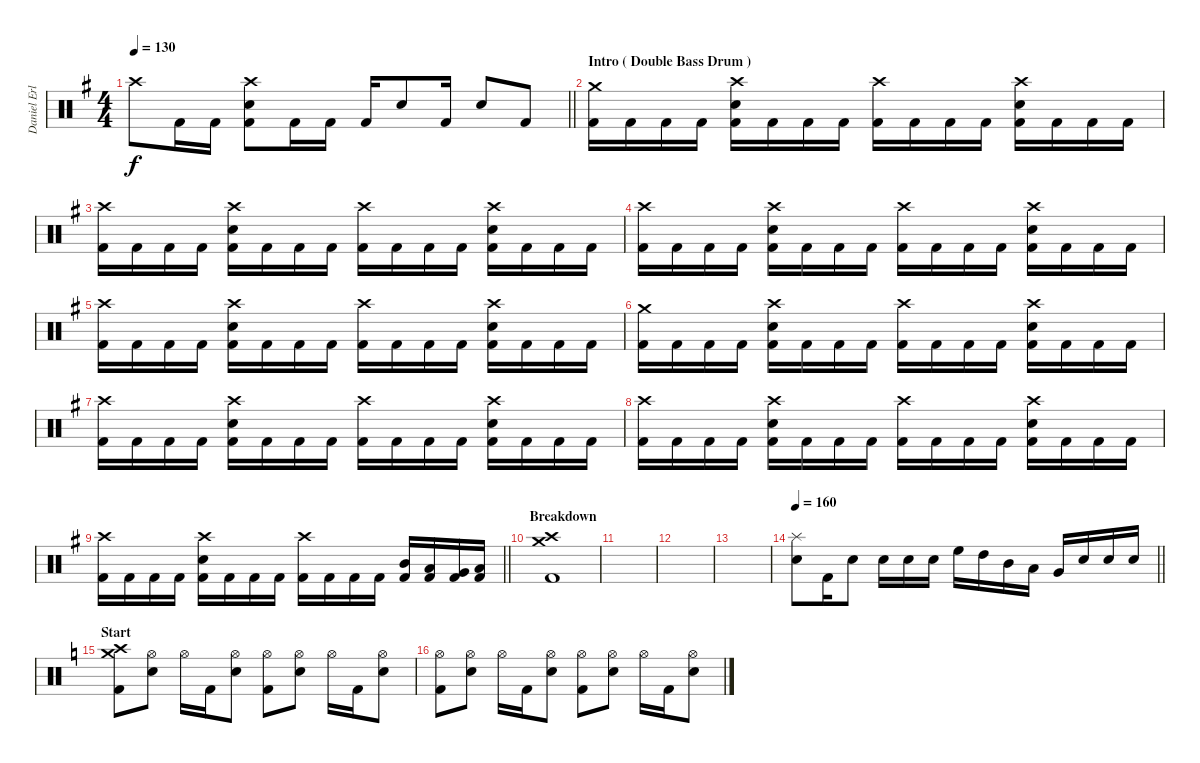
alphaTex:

\track ("Daniel Erlandsson" "Daniel Erl") {instrument percussion}
\staff {score}
\articulation defaults
\ts (4 4)
\tempo 130
\clef neutral
\barLineRight lightlight
\ks g "Crash high (hit)".8{dy f} "Kick (hit) 2".16 "Kick (hit) 2".16
("Crash high (hit)" "Kick (hit) 2" "Electric Snare (hit)").8 "Kick (hit) 2".16 "Kick (hit) 2".16 "Kick (hit) 2".16 "Electric Snare (hit)".8 "Kick (hit) 2".16 "Electric Snare (hit)".8 "Kick (hit) 2".8 |
\section ("" "Intro ( Double Bass Drum )")
("Crash medium (hit)" "Kick (hit) 2").16 "Kick (hit) 2".16 "Kick (hit) 2".16 "Kick (hit) 2".16 ("Crash high (hit)" "Electric Snare (hit)" "Kick (hit) 2").16 "Kick (hit) 2".16 "Kick (hit) 2".16 "Kick (hit) 2".16 ("Crash high (hit)" "Kick (hit) 2").16 "Kick (hit) 2".16 "Kick (hit) 2".16 "Kick (hit) 2".16 ("Crash high (hit)" "Electric Snare (hit)" "Kick (hit) 2").16 "Kick (hit) 2".16 "Kick (hit) 2".16 "Kick (hit) 2".16 |
("Crash high (hit)" "Kick (hit) 2").16 "Kick (hit) 2".16 "Kick (hit) 2".16 "Kick (hit) 2".16 ("Crash high (hit)" "Electric Snare (hit)" "Kick (hit) 2").16 "Kick (hit) 2".16 "Kick (hit) 2".16 "Kick (hit) 2".16 ("Crash high (hit)" "Kick (hit) 2").16 "Kick (hit) 2".16 "Kick (hit) 2".16 "Kick (hit) 2".16 ("Crash high (hit)" "Electric Snare (hit)" "Kick (hit) 2").16 "Kick (hit) 2".16 "Kick (hit) 2".16 "Kick (hit) 2".16 |
("Crash high (hit)" "Kick (hit) 2").16 "Kick (hit) 2".16 "Kick (hit) 2".16 "Kick (hit) 2".16 ("Crash high (hit)" "Electric Snare (hit)" "Kick (hit) 2").16 "Kick (hit) 2".16 "Kick (hit) 2".16 "Kick (hit) 2".16 ("Crash high (hit)" "Kick (hit) 2").16 "Kick (hit) 2".16 "Kick (hit) 2".16 "Kick (hit) 2".16 ("Crash high (hit)" "Electric Snare (hit)" "Kick (hit) 2").16 "Kick (hit) 2".16 "Kick (hit) 2".16 "Kick (hit) 2".16 |
("Crash high (hit)" "Kick (hit) 2").16 "Kick (hit) 2".16 "Kick (hit) 2".16 "Kick (hit) 2".16 ("Crash high (hit)" "Electric Snare (hit)" "Kick (hit) 2").16 "Kick (hit) 2".16 "Kick (hit) 2".16 "Kick (hit) 2".16 ("Crash high (hit)" "Kick (hit) 2").16 "Kick (hit) 2".16 "Kick (hit) 2".16 "Kick (hit) 2".16 ("Crash high (hit)" "Electric Snare (hit)" "Kick (hit) 2").16 "Kick (hit) 2".16 "Kick (hit) 2".16 "Kick (hit) 2".16 |
("Crash medium (hit)" "Kick (hit) 2").16 "Kick (hit) 2".16 "Kick (hit) 2".16 "Kick (hit) 2".16 ("Crash high (hit)" "Electric Snare (hit)" "Kick (hit) 2").16 "Kick (hit) 2".16 "Kick (hit) 2".16 "Kick (hit) 2".16 ("Crash high (hit)" "Kick (hit) 2").16 "Kick (hit) 2".16 "Kick (hit) 2".16 "Kick (hit) 2".16 ("Crash high (hit)" "Electric Snare (hit)" "Kick (hit) 2").16 "Kick (hit) 2".16 "Kick (hit) 2".16 "Kick (hit) 2".16 |
("Crash high (hit)" "Kick (hit) 2").16 "Kick (hit) 2".16 "Kick (hit) 2".16 "Kick (hit) 2".16 ("Crash high (hit)" "Electric Snare (hit)" "Kick (hit) 2").16 "Kick (hit) 2".16 "Kick (hit) 2".16 "Kick (hit) 2".16 ("Crash high (hit)" "Kick (hit) 2").16 "Kick (hit) 2".16 "Kick (hit) 2".16 "Kick (hit) 2".16 ("Crash high (hit)" "Electric Snare (hit)" "Kick (hit) 2").16 "Kick (hit) 2".16 "Kick (hit) 2".16 "Kick (hit) 2".16 |
("Crash high (hit)" "Kick (hit) 2").16 "Kick (hit) 2".16 "Kick (hit) 2".16 "Kick (hit) 2".16 ("Crash high (hit)" "Electric Snare (hit)" "Kick (hit) 2").16 "Kick (hit) 2".16 "Kick (hit) 2".16 "Kick (hit) 2".16 ("Crash high (hit)" "Kick (hit) 2").16 "Kick (hit) 2".16 "Kick (hit) 2".16 "Kick (hit) 2".16 ("Crash high (hit)" "Electric Snare (hit)" "Kick (hit) 2").16 "Kick (hit) 2".16 "Kick (hit) 2".16 "Kick (hit) 2".16 |
\barLineRight lightlight
("Crash high (hit)" "Kick (hit) 2").16 "Kick (hit) 2".16 "Kick (hit) 2".16 "Kick (hit) 2".16 ("Crash high (hit)" "Electric Snare (hit)" "Kick (hit) 2").16 "Kick (hit) 2".16 "Kick (hit) 2".16 "Kick (hit) 2".16 ("Crash high (hit)" "Kick (hit) 2").16 "Kick (hit) 2".16 "Kick (hit) 2".16 "Kick (hit) 2".16 ("Mid Tom (hit)" "Kick (hit) 2").16 ("Low Tom (hit)" "Kick (hit) 2").16 ("Very Low Tom (hit)" "Kick (hit) 2").16 ("Low Floor Tom (hit)" "Kick (hit) 2").16 |
\section ("" "Breakdown")
("Crash medium (hit)" "Crash high (hit)" "Kick (hit) 2").1 |
|
|
|
\tempo 160
\barLineRight lightlight
("Splash (hit)" "Electric Snare (hit)").8 "Kick (hit) 2".16 "Electric Snare (hit)".8 "Electric Snare (hit)".16 "Electric Snare (hit)".16 "Electric Snare (hit)".16 "High Floor Tom (hit)".16 "High Tom (hit)".16 "Mid Tom (hit)".16 "Low Tom (hit)".16 "Very Low Tom (hit)".16 "Electric Snare (hit)".16 "Electric Snare (hit)".16 "Electric Snare (hit)".16 |
\section ("" "Start")
\ks c
("Crash medium (hit)" "Crash high (hit)" "Kick (hit) 2").8 ("Hi-Hat (open)" "Electric Snare (hit)").8 "Hi-Hat (open)".16 "Kick (hit) 2".16 ("Hi-Hat (open)" "Electric Snare (hit)").8 ("Hi-Hat (open)" "Kick (hit) 2").8 ("Hi-Hat (open)" "Electric Snare (hit)").8 "Hi-Hat (open)".16 "Kick (hit) 2".16 ("Hi-Hat (open)" "Electric Snare (hit)").8 |
("Hi-Hat (open)" "Kick (hit) 2").8 ("Hi-Hat (open)" "Electric Snare (hit)").8 "Hi-Hat (open)".16 "Kick (hit) 2".16 ("Hi-Hat (open)" "Electric Snare (hit)").8 ("Hi-Hat (open)" "Kick (hit) 2").8 ("Hi-Hat (open)" "Electric Snare (hit)").8 "Hi-Hat (open)".16 "Kick (hit) 2".16 ("Hi-Hat (open)" "Electric Snare (hit)").8
